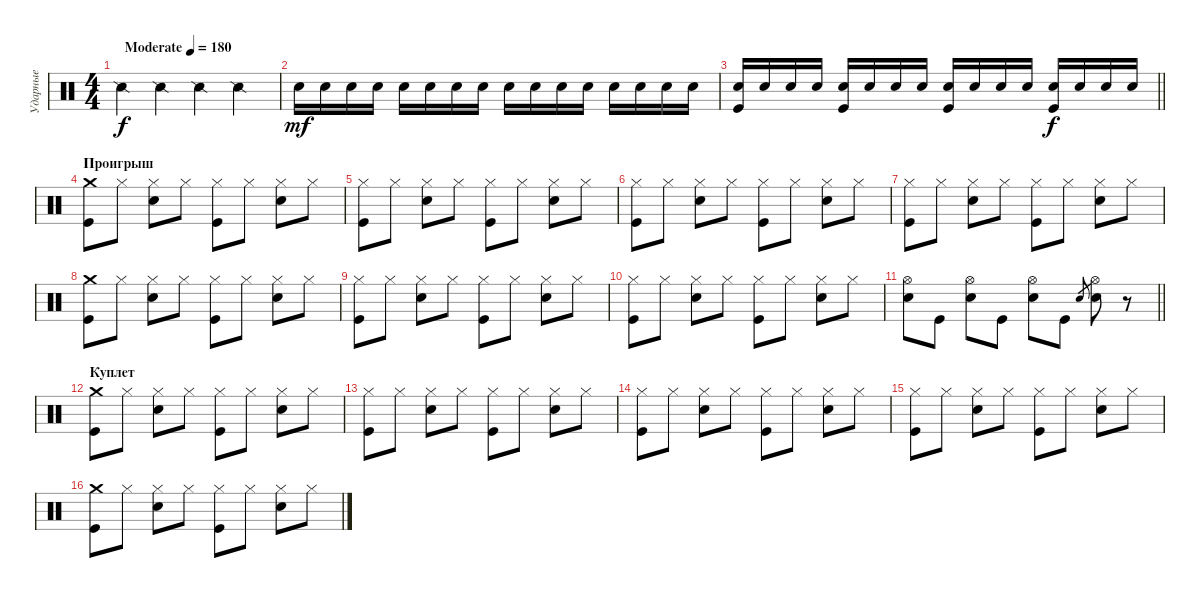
\track ("Ударные" "Ударные") {instrument percussion}
\staff {score}
\articulation defaults
\ts (4 4)
\tempo (180 "Moderate")
\clef neutral
\ks c "Snare (side stick) 2".4{dy f} "Snare (side stick) 2".4 "Snare (side stick) 2".4 "Snare (side stick) 2".4
|
"Electric Snare (hit)".16{dy mf} "Electric Snare (hit)".16 "Electric Snare (hit)".16 "Electric Snare (hit)".16 "Electric Snare (hit)".16 "Electric Snare (hit)".16 "Electric Snare (hit)".16 "Electric Snare (hit)".16 "Electric Snare (hit)".16 "Electric Snare (hit)".16 "Electric Snare (hit)".16 "Electric Snare (hit)".16 "Electric Snare (hit)".16 "Electric Snare (hit)".16 "Electric Snare (hit)".16 "Electric Snare (hit)".16 |
\barLineRight lightlight
("Electric Snare (hit)" "Kick (hit)").16 "Electric Snare (hit)".16 "Electric Snare (hit)".16 "Electric Snare (hit)".16 ("Electric Snare (hit)" "Kick (hit)").16 "Electric Snare (hit)".16 "Electric Snare (hit)".16 "Electric Snare (hit)".16 ("Electric Snare (hit)" "Kick (hit)").16 "Electric Snare (hit)".16 "Electric Snare (hit)".16 "Electric Snare (hit)".16 ("Electric Snare (hit)" "Kick (hit)").16{dy f} "Electric Snare (hit)".16 "Electric Snare (hit)".16 "Electric Snare (hit)".16 |
\section ("" "Проигрыш")
("Crash medium (hit)" "Kick (hit)").8 "Hi-Hat (closed)".8 ("Hi-Hat (closed)" "Electric Snare (hit)").8 "Hi-Hat (closed)".8 ("Hi-Hat (closed)" "Kick (hit)").8 "Hi-Hat (closed)".8 ("Hi-Hat (closed)" "Electric Snare (hit)").8 "Hi-Hat (closed)".8 |
("Hi-Hat (closed)" "Kick (hit)").8 "Hi-Hat (closed)".8 ("Hi-Hat (closed)" "Electric Snare (hit)").8 "Hi-Hat (closed)".8 ("Hi-Hat (closed)" "Kick (hit)").8 "Hi-Hat (closed)".8 ("Hi-Hat (closed)" "Electric Snare (hit)").8 "Hi-Hat (closed)".8 |
("Hi-Hat (closed)" "Kick (hit)").8 "Hi-Hat (closed)".8 ("Hi-Hat (closed)" "Electric Snare (hit)").8 "Hi-Hat (closed)".8 ("Hi-Hat (closed)" "Kick (hit)").8 "Hi-Hat (closed)".8 ("Hi-Hat (closed)" "Electric Snare (hit)").8 "Hi-Hat (closed)".8 |
("Hi-Hat (closed)" "Kick (hit)").8 "Hi-Hat (closed)".8 ("Hi-Hat (closed)" "Electric Snare (hit)").8 "Hi-Hat (closed)".8 ("Hi-Hat (closed)" "Kick (hit)").8 "Hi-Hat (closed)".8 ("Hi-Hat (closed)" "Electric Snare (hit)").8 "Hi-Hat (closed)".8 |
("Crash medium (hit)" "Kick (hit)").8 "Hi-Hat (closed)".8 ("Hi-Hat (closed)" "Electric Snare (hit)").8 "Hi-Hat (closed)".8 ("Hi-Hat (closed)" "Kick (hit)").8 "Hi-Hat (closed)".8 ("Hi-Hat (closed)" "Electric Snare (hit)").8 "Hi-Hat (closed)".8 |
("Hi-Hat (closed)" "Kick (hit)").8 "Hi-Hat (closed)".8 ("Hi-Hat (closed)" "Electric Snare (hit)").8 "Hi-Hat (closed)".8 ("Hi-Hat (closed)" "Kick (hit)").8 "Hi-Hat (closed)".8 ("Hi-Hat (closed)" "Electric Snare (hit)").8 "Hi-Hat (closed)".8 |
("Hi-Hat (closed)" "Kick (hit)").8 "Hi-Hat (closed)".8 ("Hi-Hat (closed)" "Electric Snare (hit)").8 "Hi-Hat (closed)".8 ("Hi-Hat (closed)" "Kick (hit)").8 "Hi-Hat (closed)".8 ("Hi-Hat (closed)" "Electric Snare (hit)").8 "Hi-Hat (closed)".8 |
\barLineRight lightlight
("Hi-Hat (open)" "Electric Snare (hit)").8 "Kick (hit)".8 ("Hi-Hat (open)" "Electric Snare (hit)").8 "Kick (hit)".8 ("Hi-Hat (open)" "Electric Snare (hit)").8 "Kick (hit)".8 "Electric Snare (hit)".8{gr} ("Hi-Hat (open)" "Electric Snare (hit)").8 r.8 |
\section ("" "Куплет")
("Crash medium (hit)" "Kick (hit)").8 "Hi-Hat (closed)".8 ("Hi-Hat (closed)" "Electric Snare (hit)").8 "Hi-Hat (closed)".8 ("Hi-Hat (closed)" "Kick (hit)").8 "Hi-Hat (closed)".8 ("Hi-Hat (closed)" "Electric Snare (hit)").8 "Hi-Hat (closed)".8 |
("Hi-Hat (closed)" "Kick (hit)").8 "Hi-Hat (closed)".8 ("Hi-Hat (closed)" "Electric Snare (hit)").8 "Hi-Hat (closed)".8 ("Hi-Hat (closed)" "Kick (hit)").8 "Hi-Hat (closed)".8 ("Hi-Hat (closed)" "Electric Snare (hit)").8 "Hi-Hat (closed)".8 |
("Hi-Hat (closed)" "Kick (hit)").8 "Hi-Hat (closed)".8 ("Hi-Hat (closed)" "Electric Snare (hit)").8 "Hi-Hat (closed)".8 ("Hi-Hat (closed)" "Kick (hit)").8 "Hi-Hat (closed)".8 ("Hi-Hat (closed)" "Electric Snare (hit)").8 "Hi-Hat (closed)".8 |
("Hi-Hat (closed)" "Kick (hit)").8 "Hi-Hat (closed)".8 ("Hi-Hat (closed)" "Electric Snare (hit)").8 "Hi-Hat (closed)".8 ("Hi-Hat (closed)" "Kick (hit)").8 "Hi-Hat (closed)".8 ("Hi-Hat (closed)" "Electric Snare (hit)").8 "Hi-Hat (closed)".8 |
("Crash medium (hit)" "Kick (hit)").8 "Hi-Hat (closed)".8 ("Hi-Hat (closed)" "Electric Snare (hit)").8 "Hi-Hat (closed)".8 ("Hi-Hat (closed)" "Kick (hit)").8 "Hi-Hat (closed)".8 ("Hi-Hat (closed)" "Electric Snare (hit)").8 "Hi-Hat (closed)".8
